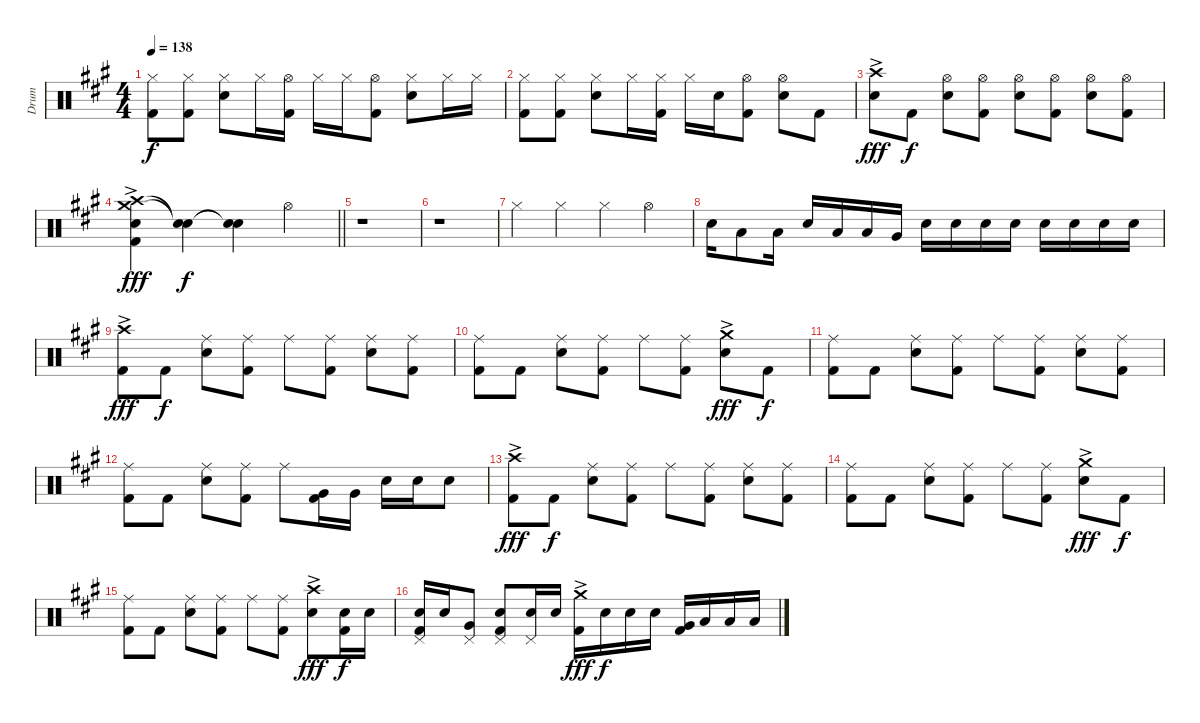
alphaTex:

\track ("Drum" "Drum") {instrument percussion}
\staff {score}
\articulation defaults
\ts (4 4)
\tempo 138
\clef neutral
\ks a
("Hi-Hat (closed)" "Kick (hit) 2").8{dy f} ("Hi-Hat (closed)" "Kick (hit) 2").8 ("Hi-Hat (closed)" "Snare (hit) 2").8 "Hi-Hat (closed)".16 ("Hi-Hat (open)" "Kick (hit) 2").16 "Hi-Hat (closed)".16 "Hi-Hat (closed)".16 ("Hi-Hat (open)" "Kick (hit) 2").8 ("Hi-Hat (closed)" "Snare (hit) 2").8 "Hi-Hat (closed)".16 "Hi-Hat (closed)".16 |
("Hi-Hat (closed)" "Kick (hit) 2").8 ("Hi-Hat (closed)" "Kick (hit) 2").8 ("Hi-Hat (closed)" "Snare (hit) 2").8 "Hi-Hat (closed)".16 ("Hi-Hat (closed)" "Kick (hit) 2").16 "Hi-Hat (closed)".16 "Snare (hit) 2".16 ("Hi-Hat (open)" "Kick (hit) 2").8 ("Hi-Hat (open)" "Snare (hit) 2").8 "Kick (hit) 2".8 |
("Crash high (hit)"{ac} "Snare (hit) 2").8{dy fff} "Kick (hit) 2".8{dy f} ("Hi-Hat (open)" "Snare (hit) 2").8 ("Hi-Hat (open)" "Kick (hit) 2").8 ("Hi-Hat (open)" "Snare (hit) 2").8 ("Hi-Hat (open)" "Kick (hit) 2").8 ("Hi-Hat (open)" "Snare (hit) 2").8 ("Hi-Hat (open)" "Kick (hit) 2").8 |
\barLineRight lightlight
("Crash medium (hit)"{ac} "Crash high (hit)"{ac} "Snare (hit) 2" "Kick (hit) 2").4{dy fff} ("Snare (hit)"{t} "Snare (hit)"{t}).4{dy f} ("Snare (hit)"{t} "Snare (hit)"{t}).4 "Hi-Hat (open)".4 |
r.1 |
r.1 |
"Hi-Hat (closed)".4 "Hi-Hat (closed)".4 "Hi-Hat (closed)".4 "Hi-Hat (open)".4 |
"Snare (hit) 2".16 "Low Floor Tom (hit)".8 "Low Floor Tom (hit)".16 "Snare (hit) 2".16 "Low Floor Tom (hit)".16 "Low Floor Tom (hit)".16 "Very Low Tom (hit)".16 "Snare (hit) 2".16 "Snare (hit) 2".16 "Snare (hit) 2".16 "Snare (hit) 2".16 "Snare (hit) 2".16 "Snare (hit) 2".16 "Snare (hit) 2".16 "Snare (hit) 2".16 |
("Crash high (hit)"{ac} "Kick (hit) 2").8{dy fff} "Kick (hit) 2".8{dy f} ("Ride (middle)" "Snare (hit) 2").8 ("Ride (middle)" "Kick (hit) 2").8 "Ride (middle)".8 ("Ride (middle)" "Kick (hit) 2").8 ("Ride (middle)" "Snare (hit) 2").8 ("Ride (middle)" "Kick (hit) 2").8 |
("Ride (middle)" "Kick (hit) 2").8 "Kick (hit) 2".8 ("Ride (middle)" "Snare (hit) 2").8 ("Ride (middle)" "Kick (hit) 2").8 "Ride (middle)".8 ("Ride (middle)" "Kick (hit) 2").8 ("Crash medium (hit)"{ac} "Snare (hit) 2").8{dy fff} "Kick (hit) 2".8{dy f} |
("Ride (middle)" "Kick (hit) 2").8 "Kick (hit) 2".8 ("Ride (middle)" "Snare (hit) 2").8 ("Ride (middle)" "Kick (hit) 2").8 "Ride (middle)".8 ("Ride (middle)" "Kick (hit) 2").8 ("Ride (middle)" "Snare (hit) 2").8 ("Ride (middle)" "Kick (hit) 2").8 |
("Ride (middle)" "Kick (hit) 2").8 "Kick (hit) 2".8 ("Ride (middle)" "Snare (hit) 2").8 ("Ride (middle)" "Kick (hit) 2").8 "Ride (middle)".8 ("Very Low Tom (hit)" "Kick (hit) 2").16 "Very Low Tom (hit)".16 "Snare (hit) 2".16 "Snare (hit) 2".16 "Snare (hit) 2".8 |
("Crash high (hit)"{ac} "Kick (hit) 2").8{dy fff} "Kick (hit) 2".8{dy f} ("Ride (middle)" "Snare (hit) 2").8 ("Ride (middle)" "Kick (hit) 2").8 "Ride (middle)".8 ("Ride (middle)" "Kick (hit) 2").8 ("Ride (middle)" "Snare (hit) 2").8 ("Ride (middle)" "Kick (hit) 2").8 |
("Ride (middle)" "Kick (hit) 2").8 "Kick (hit) 2".8 ("Ride (middle)" "Snare (hit) 2").8 ("Ride (middle)" "Kick (hit) 2").8 "Ride (middle)".8 ("Ride (middle)" "Kick (hit) 2").8 ("Crash medium (hit)"{ac} "Snare (hit) 2").8{dy fff} "Kick (hit) 2".8{dy f} |
("Ride (middle)" "Kick (hit) 2").8 "Kick (hit) 2".8 ("Ride (middle)" "Snare (hit) 2").8 ("Ride (middle)" "Kick (hit) 2").8 "Ride (middle)".8 ("Ride (middle)" "Kick (hit) 2").8 ("Crash high (hit)"{ac} "Snare (hit) 2").8{dy fff} ("Snare (hit) 2" "Kick (hit) 2").16{dy f} "Snare (hit) 2".16 |
("Pedal Hi-Hat (hit)" "Snare (hit) 2" "Kick (hit) 2").16 "Snare (hit) 2".16 ("Pedal Hi-Hat (hit)" "Very Low Tom (hit)").8 ("Pedal Hi-Hat (hit)" "Snare (hit) 2" "Kick (hit) 2").8 ("Pedal Hi-Hat (hit)" "Snare (hit) 2").16 "Snare (hit) 2".16 ("Crash medium (hit)"{ac} "Kick (hit) 2").16{dy fff} "Snare (hit) 2".16{dy f} "Snare (hit) 2".16 "Snare (hit) 2".16 ("Very Low Tom (hit)" "Kick (hit) 2").16 "Low Floor Tom (hit)".16 "Low Floor Tom (hit)".16 "Low Floor Tom (hit)".16
